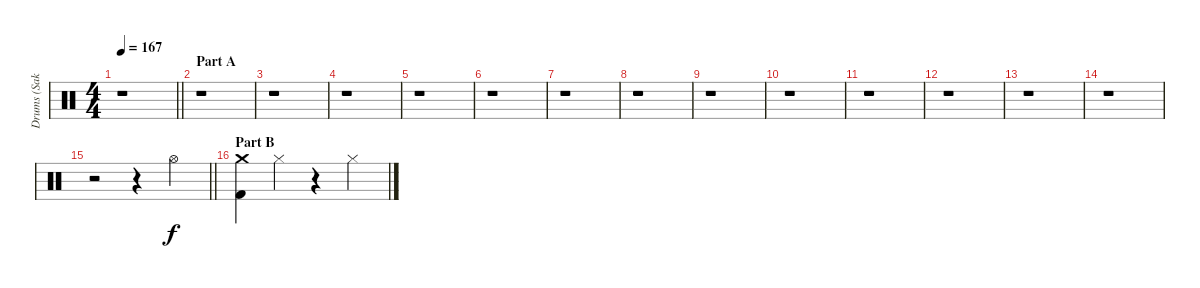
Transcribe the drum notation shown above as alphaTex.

\track ("Drums (Sakura)" "Drums (Sak") {instrument percussion}
\staff {score}
\articulation defaults
\ts (4 4)
\tempo 167
\clef neutral
\barLineRight lightlight
\ks c
r.1{dy f} |
\section ("" "Part A")
r.1 |
r.1 |
r.1 |
r.1 |
r.1 |
r.1 |
r.1 |
r.1 |
r.1 |
r.1 |
r.1 |
r.1 |
r.1 |
\barLineRight lightlight
r.2 r.4 "Hi-Hat (open)".4 |
\section ("" "Part B")
("Crash medium (hit)" "Kick (hit) 2").4 "Hi-Hat (closed)".4 r.4 "Hi-Hat (closed)".4
